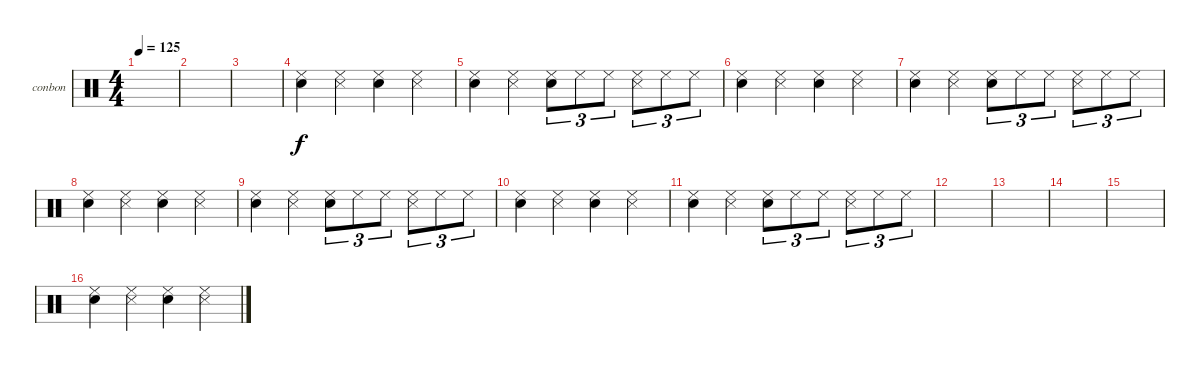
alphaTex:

\defaultSystemsLayout 4
\bracketExtendMode groupsimilarinstruments
\firstSystemTrackNameOrientation horizontal
\otherSystemsTrackNameOrientation horizontal
\track ("Bongos N Congas" "conbon") {instrument percussion}
\staff {score}
\articulation defaults
\ts (4 4)
\tempo 125
\clef neutral
\scale
0.333333
\ks c
|
\scale
0.333333 |
\scale
0.333333 |
\scale
0.333333 ("Cowbell low (tip)" "Snare (hit) 2").4 ("Cowbell low (tip)" "Snare (side stick) 3").4 ("Cowbell low (tip)" "Snare (hit) 2").4 ("Cowbell low (tip)" "Snare (side stick) 3").4 |
\scale
0.333333 ("Cowbell low (tip)" "Snare (hit) 2").4 ("Cowbell low (tip)" "Snare (side stick) 3").4 ("Cowbell low (tip)" "Snare (hit) 2").8{tu (3 2)} "Cowbell low (tip)".8{tu (3 2)} "Cowbell low (tip)".8{tu (3 2)} ("Cowbell low (tip)" "Snare (side stick) 3").8{tu (3 2)} "Cowbell low (tip)".8{tu (3 2)} "Cowbell low (tip)".8{tu (3 2)} |
\scale
0.333333 ("Cowbell low (tip)" "Snare (hit) 2").4 ("Cowbell low (tip)" "Snare (side stick) 3").4 ("Cowbell low (tip)" "Snare (hit) 2").4 ("Cowbell low (tip)" "Snare (side stick) 3").4 |
\scale
0.333333 ("Cowbell low (tip)" "Snare (hit) 2").4 ("Cowbell low (tip)" "Snare (side stick) 3").4 ("Cowbell low (tip)" "Snare (hit) 2").8{tu (3 2)} "Cowbell low (tip)".8{tu (3 2)} "Cowbell low (tip)".8{tu (3 2)} ("Cowbell low (tip)" "Snare (side stick) 3").8{tu (3 2)} "Cowbell low (tip)".8{tu (3 2)} "Cowbell low (tip)".8{tu (3 2)} |
\scale
0.333333 ("Cowbell low (tip)" "Snare (hit) 2").4 ("Cowbell low (tip)" "Snare (side stick) 3").4 ("Cowbell low (tip)" "Snare (hit) 2").4 ("Cowbell low (tip)" "Snare (side stick) 3").4 |
\scale
0.333333 ("Cowbell low (tip)" "Snare (hit) 2").4 ("Cowbell low (tip)" "Snare (side stick) 3").4 ("Cowbell low (tip)" "Snare (hit) 2").8{tu (3 2)} "Cowbell low (tip)".8{tu (3 2)} "Cowbell low (tip)".8{tu (3 2)} ("Cowbell low (tip)" "Snare (side stick) 3").8{tu (3 2)} "Cowbell low (tip)".8{tu (3 2)} "Cowbell low (tip)".8{tu (3 2)} |
\scale
0.333333 ("Cowbell low (tip)" "Snare (hit) 2").4 ("Cowbell low (tip)" "Snare (side stick) 3").4 ("Cowbell low (tip)" "Snare (hit) 2").4 ("Cowbell low (tip)" "Snare (side stick) 3").4 |
\scale
0.333333 ("Cowbell low (tip)" "Snare (hit) 2").4 ("Cowbell low (tip)" "Snare (side stick) 3").4 ("Cowbell low (tip)" "Snare (hit) 2").8{tu (3 2)} "Cowbell low (tip)".8{tu (3 2)} "Cowbell low (tip)".8{tu (3 2)} ("Cowbell low (tip)" "Snare (side stick) 3").8{tu (3 2)} "Cowbell low (tip)".8{tu (3 2)} "Cowbell low (tip)".8{tu (3 2)} |
\scale
0.333333 |
\scale
0.333333 |
\scale
0.333333 |
\scale
0.333333 |
\scale
0.333333 ("Cowbell low (tip)" "Snare (hit) 2").4 ("Cowbell low (tip)" "Snare (side stick) 3").4 ("Cowbell low (tip)" "Snare (hit) 2").4 ("Cowbell low (tip)" "Snare (side stick) 3").4
